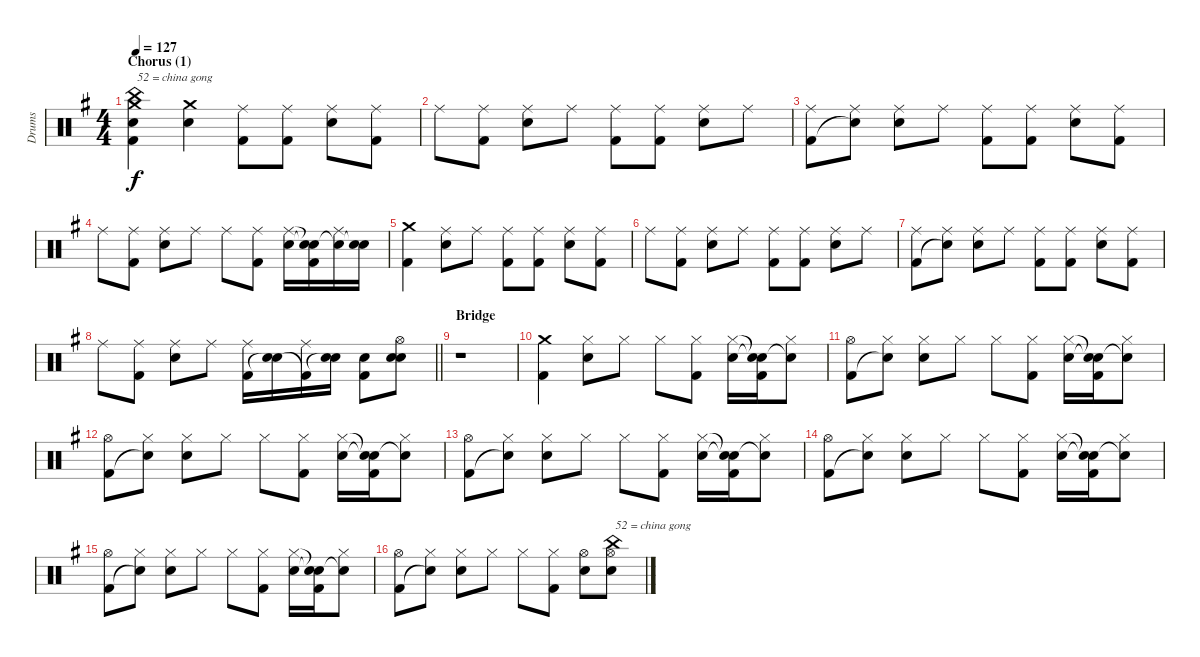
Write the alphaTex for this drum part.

\track ("Drums" "Drums") {instrument percussion}
\staff {score}
\articulation defaults
\ts (4 4)
\section ("" "Chorus (1)")
\tempo 127
\clef neutral
\ks eminor
("Crash medium (hit)" "China (hit)" "Electric Snare (hit)" "Kick (hit) 2").4{txt "52 = china gong" dy f} ("Crash medium (hit)" "Electric Snare (hit)").4 ("Ride (middle)" "Kick (hit) 2").8 ("Ride (middle)" "Kick (hit) 2").8 ("Ride (middle)" "Electric Snare (hit)").8 ("Ride (middle)" "Kick (hit) 2").8 |
"Ride (middle)".8 ("Ride (middle)" "Kick (hit) 2").8 ("Ride (middle)" "Electric Snare (hit)").8 "Ride (middle)".8 ("Ride (middle)" "Kick (hit) 2").8 ("Ride (middle)" "Kick (hit) 2").8 ("Ride (middle)" "Electric Snare (hit)").8 "Ride (middle)".8 |
("Ride (middle)" "Kick (hit) 2").8 ("Ride (middle)" "Snare (hit)"{t}).8 ("Ride (middle)" "Electric Snare (hit)").8 "Ride (middle)".8 ("Ride (middle)" "Kick (hit) 2").8 ("Ride (middle)" "Kick (hit) 2").8 ("Ride (middle)" "Electric Snare (hit)").8 ("Ride (middle)" "Kick (hit) 2").8 |
"Ride (middle)".8 ("Ride (middle)" "Kick (hit) 2").8 ("Ride (middle)" "Electric Snare (hit)").8 "Ride (middle)".8 "Ride (middle)".8 ("Ride (middle)" "Kick (hit) 2").8 ("Ride (middle)" "Electric Snare (hit)").16 ("Snare (hit)"{t} "Snare (hit)"{t} "Kick (hit) 2").16 ("Ride (middle)" "Snare (hit)"{t}).16 ("Electric Snare (hit)" "Snare (hit)"{t}).16 |
("Crash medium (hit)" "Kick (hit) 2").4 ("Ride (middle)" "Electric Snare (hit)").8 "Ride (middle)".8 ("Ride (middle)" "Kick (hit) 2").8 ("Ride (middle)" "Kick (hit) 2").8 ("Ride (middle)" "Electric Snare (hit)").8 ("Ride (middle)" "Kick (hit) 2").8 |
"Ride (middle)".8 ("Ride (middle)" "Kick (hit) 2").8 ("Ride (middle)" "Electric Snare (hit)").8 "Ride (middle)".8 ("Ride (middle)" "Kick (hit) 2").8 ("Ride (middle)" "Kick (hit) 2").8 ("Ride (middle)" "Electric Snare (hit)").8 "Ride (middle)".8 |
("Ride (middle)" "Kick (hit) 2").8 ("Ride (middle)" "Snare (hit)"{t}).8 ("Ride (middle)" "Electric Snare (hit)").8 "Ride (middle)".8 ("Ride (middle)" "Kick (hit) 2").8 ("Ride (middle)" "Kick (hit) 2").8 ("Ride (middle)" "Electric Snare (hit)").8 ("Ride (middle)" "Kick (hit) 2").8 |
\barLineRight lightlight "Ride (middle)".8
("Ride (middle)" "Kick (hit) 2").8 ("Ride (middle)" "Electric Snare (hit)").8 "Ride (middle)".8 ("Ride (middle)" "Kick (hit) 2").16 ("Electric Snare (hit)" "Snare (hit)"{t}).16 ("Ride (middle)" "Kick (hit) 2"{t}).16 ("Electric Snare (hit)" "Snare (hit)"{t}).16 ("Electric Snare (hit)" "Kick (hit) 2").8 ("Hi-Hat (open)" "Electric Snare (hit)" "Snare (hit)").8 |
\section ("" "Bridge")
r.1 |
("Crash medium (hit)" "Kick (hit) 2").4 ("Hi-Hat (closed)" "Electric Snare (hit)").8 "Hi-Hat (closed)".8 "Hi-Hat (closed)".8 ("Hi-Hat (closed)" "Kick (hit) 2").8 ("Hi-Hat (closed)" "Electric Snare (hit)").16 ("Snare (hit)"{t} "Snare (hit)"{t} "Kick (hit) 2").16 ("Hi-Hat (closed)" "Snare (hit)"{t}).8 |
("Hi-Hat (open)" "Kick (hit) 2").8 ("Hi-Hat (closed)" "Snare (hit)"{t}).8 ("Hi-Hat (closed)" "Electric Snare (hit)").8 "Hi-Hat (closed)".8 "Hi-Hat (closed)".8 ("Hi-Hat (closed)" "Kick (hit) 2").8 ("Hi-Hat (closed)" "Electric Snare (hit)").16 ("Snare (hit)"{t} "Snare (hit)"{t} "Kick (hit) 2").16 ("Hi-Hat (closed)" "Snare (hit)"{t}).8 |
("Hi-Hat (open)" "Kick (hit) 2").8 ("Hi-Hat (closed)" "Snare (hit)"{t}).8 ("Hi-Hat (closed)" "Electric Snare (hit)").8 "Hi-Hat (closed)".8 "Hi-Hat (closed)".8 ("Hi-Hat (closed)" "Kick (hit) 2").8 ("Hi-Hat (closed)" "Electric Snare (hit)").16 ("Snare (hit)"{t} "Snare (hit)"{t} "Kick (hit) 2").16 ("Hi-Hat (closed)" "Snare (hit)"{t}).8 |
("Hi-Hat (open)" "Kick (hit) 2").8 ("Hi-Hat (closed)" "Snare (hit)"{t}).8 ("Hi-Hat (closed)" "Electric Snare (hit)").8 "Hi-Hat (closed)".8 "Hi-Hat (closed)".8 ("Hi-Hat (closed)" "Kick (hit) 2").8 ("Hi-Hat (closed)" "Electric Snare (hit)").16 ("Snare (hit)"{t} "Snare (hit)"{t} "Kick (hit) 2").16 ("Hi-Hat (closed)" "Snare (hit)"{t}).8 |
("Hi-Hat (open)" "Kick (hit) 2").8 ("Hi-Hat (closed)" "Snare (hit)"{t}).8 ("Hi-Hat (closed)" "Electric Snare (hit)").8 "Hi-Hat (closed)".8 "Hi-Hat (closed)".8 ("Hi-Hat (closed)" "Kick (hit) 2").8 ("Hi-Hat (closed)" "Electric Snare (hit)").16 ("Snare (hit)"{t} "Snare (hit)"{t} "Kick (hit) 2").16 ("Hi-Hat (closed)" "Snare (hit)"{t}).8 |
("Hi-Hat (open)" "Kick (hit) 2").8 ("Hi-Hat (closed)" "Snare (hit)"{t}).8 ("Hi-Hat (closed)" "Electric Snare (hit)").8 "Hi-Hat (closed)".8 "Hi-Hat (closed)".8 ("Hi-Hat (closed)" "Kick (hit) 2").8 ("Hi-Hat (closed)" "Electric Snare (hit)").16 ("Snare (hit)"{t} "Snare (hit)"{t} "Kick (hit) 2").16 ("Hi-Hat (closed)" "Snare (hit)"{t}).8 |
("Hi-Hat (open)" "Kick (hit) 2").8 ("Hi-Hat (closed)" "Snare (hit)"{t}).8 ("Hi-Hat (closed)" "Electric Snare (hit)").8 "Hi-Hat (closed)".8 "Hi-Hat (closed)".8 ("Hi-Hat (closed)" "Kick (hit) 2").8 ("Hi-Hat (open)" "Electric Snare (hit)").8 ("Hi-Hat (open)" "China (hit)" "Electric Snare (hit)").8{txt "52 = china gong"}
